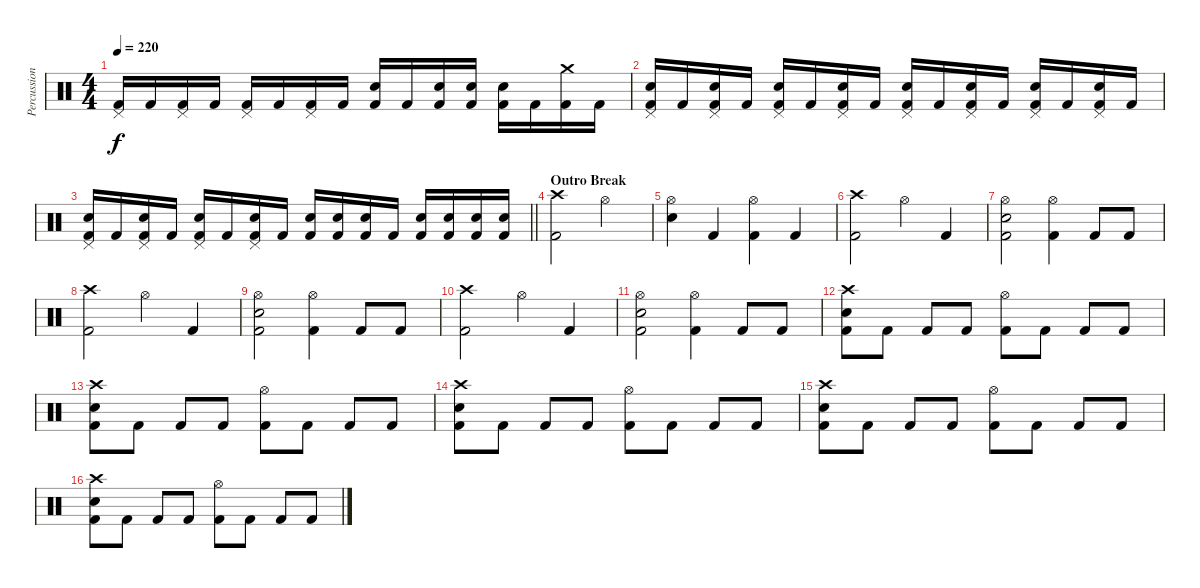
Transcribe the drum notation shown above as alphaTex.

\track ("Percussion" "Percussion") {instrument percussion}
\staff {score}
\articulation defaults
\ts (4 4)
\tempo 220
\clef neutral
\ks c
("Pedal Hi-Hat (hit)" "Kick (hit) 2").16{dy f} "Kick (hit) 2".16 ("Pedal Hi-Hat (hit)" "Kick (hit) 2").16 "Kick (hit) 2".16 ("Pedal Hi-Hat (hit)" "Kick (hit) 2").16 "Kick (hit) 2".16 ("Pedal Hi-Hat (hit)" "Kick (hit) 2").16 "Kick (hit) 2".16 ("Snare (hit) 2" "Kick (hit) 2").16 "Kick (hit) 2".16 ("Snare (hit) 2" "Kick (hit) 2").16 ("Snare (hit) 2" "Kick (hit) 2").16 ("Snare (hit) 2" "Kick (hit) 2").16 "Kick (hit) 2".16 ("Crash medium (hit)" "Kick (hit) 2").16 "Kick (hit) 2".16 |
("Pedal Hi-Hat (hit)" "Snare (hit) 2" "Kick (hit) 2").16 "Kick (hit) 2".16 ("Pedal Hi-Hat (hit)" "Snare (hit) 2" "Kick (hit) 2").16 "Kick (hit) 2".16 ("Pedal Hi-Hat (hit)" "Snare (hit) 2" "Kick (hit) 2").16 "Kick (hit) 2".16 ("Pedal Hi-Hat (hit)" "Snare (hit) 2" "Kick (hit) 2").16 "Kick (hit) 2".16 ("Pedal Hi-Hat (hit)" "Snare (hit) 2" "Kick (hit) 2").16 "Kick (hit) 2".16 ("Pedal Hi-Hat (hit)" "Snare (hit) 2" "Kick (hit) 2").16 "Kick (hit) 2".16 ("Pedal Hi-Hat (hit)" "Snare (hit) 2" "Kick (hit) 2").16 "Kick (hit) 2".16 ("Pedal Hi-Hat (hit)" "Snare (hit) 2" "Kick (hit) 2").16 "Kick (hit) 2".16 |
\barLineRight lightlight
("Pedal Hi-Hat (hit)" "Snare (hit) 2" "Kick (hit) 2").16 "Kick (hit) 2".16 ("Pedal Hi-Hat (hit)" "Snare (hit) 2" "Kick (hit) 2").16 "Kick (hit) 2".16 ("Pedal Hi-Hat (hit)" "Snare (hit) 2" "Kick (hit) 2").16 "Kick (hit) 2".16 ("Pedal Hi-Hat (hit)" "Snare (hit) 2" "Kick (hit) 2").16 "Kick (hit) 2".16 ("Snare (hit) 2" "Kick (hit) 2").16 ("Snare (hit) 2" "Kick (hit) 2").16 ("Snare (hit) 2" "Kick (hit) 2").16 "Kick (hit) 2".16 ("Snare (hit) 2" "Kick (hit) 2").16 ("Snare (hit) 2" "Kick (hit) 2").16 ("Snare (hit) 2" "Kick (hit) 2").16 ("Snare (hit) 2" "Kick (hit) 2").16 |
\section ("" "Outro Break")
("Crash high (hit)" "Kick (hit) 2").2 "Hi-Hat (open)".2 |
("Hi-Hat (open)" "Snare (hit) 2").4 "Kick (hit) 2".4 ("Hi-Hat (open)" "Kick (hit) 2").4 "Kick (hit) 2".4 |
("Crash high (hit)" "Kick (hit) 2").2 "Hi-Hat (open)".4 "Kick (hit) 2".4 |
("Hi-Hat (open)" "Snare (hit) 2" "Kick (hit) 2").2 ("Hi-Hat (open)" "Kick (hit) 2").4 "Kick (hit) 2".8 "Kick (hit) 2".8 |
("Crash high (hit)" "Kick (hit) 2").2 "Hi-Hat (open)".4 "Kick (hit) 2".4 |
("Hi-Hat (open)" "Snare (hit) 2" "Kick (hit) 2").2 ("Hi-Hat (open)" "Kick (hit) 2").4 "Kick (hit) 2".8 "Kick (hit) 2".8 |
("Crash high (hit)" "Kick (hit) 2").2 "Hi-Hat (open)".4 "Kick (hit) 2".4 |
("Hi-Hat (open)" "Snare (hit) 2" "Kick (hit) 2").2 ("Hi-Hat (open)" "Kick (hit) 2").4 "Kick (hit) 2".8 "Kick (hit) 2".8 |
("Crash high (hit)" "Snare (hit) 2" "Kick (hit) 2").8 "Kick (hit) 2".8 "Kick (hit) 2".8 "Kick (hit) 2".8 ("Hi-Hat (open)" "Kick (hit) 2").8 "Kick (hit) 2".8 "Kick (hit) 2".8 "Kick (hit) 2".8 |
("Crash high (hit)" "Snare (hit) 2" "Kick (hit) 2").8 "Kick (hit) 2".8 "Kick (hit) 2".8 "Kick (hit) 2".8 ("Hi-Hat (open)" "Kick (hit) 2").8 "Kick (hit) 2".8 "Kick (hit) 2".8 "Kick (hit) 2".8 |
("Crash high (hit)" "Snare (hit) 2" "Kick (hit) 2").8 "Kick (hit) 2".8 "Kick (hit) 2".8 "Kick (hit) 2".8 ("Hi-Hat (open)" "Kick (hit) 2").8 "Kick (hit) 2".8 "Kick (hit) 2".8 "Kick (hit) 2".8 |
("Crash high (hit)" "Snare (hit) 2" "Kick (hit) 2").8 "Kick (hit) 2".8 "Kick (hit) 2".8 "Kick (hit) 2".8 ("Hi-Hat (open)" "Kick (hit) 2").8 "Kick (hit) 2".8 "Kick (hit) 2".8 "Kick (hit) 2".8 |
("Crash high (hit)" "Snare (hit) 2" "Kick (hit) 2").8 "Kick (hit) 2".8 "Kick (hit) 2".8 "Kick (hit) 2".8 ("Hi-Hat (open)" "Kick (hit) 2").8 "Kick (hit) 2".8 "Kick (hit) 2".8 "Kick (hit) 2".8
